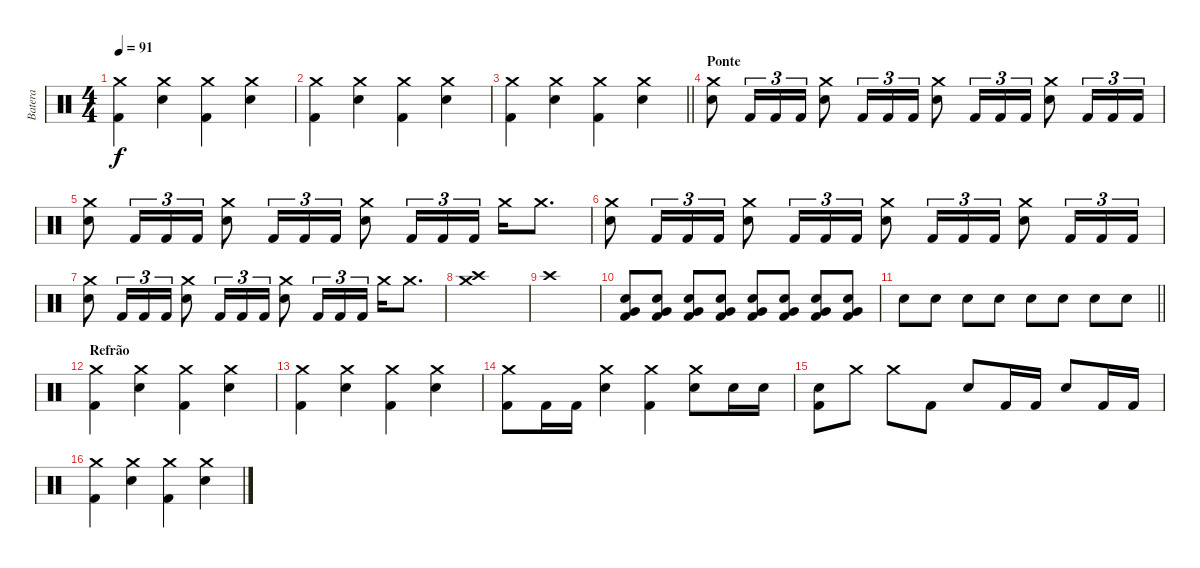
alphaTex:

\track ("Batera" "Batera") {instrument percussion}
\staff {score}
\articulation defaults
\ts (4 4)
\tempo 91
\clef neutral
\ks c
("Crash medium (hit)" "Kick (hit) 2").4{dy f} ("Crash medium (hit)" "Electric Snare (hit)").4 ("Crash medium (hit)" "Kick (hit) 2").4 ("Crash medium (hit)" "Electric Snare (hit)").4 |
("Crash medium (hit)" "Kick (hit) 2").4 ("Crash medium (hit)" "Electric Snare (hit)").4 ("Crash medium (hit)" "Kick (hit) 2").4 ("Crash medium (hit)" "Electric Snare (hit)").4 |
\barLineRight lightlight
("Crash medium (hit)" "Kick (hit) 2").4 ("Crash medium (hit)" "Electric Snare (hit)").4 ("Crash medium (hit)" "Kick (hit) 2").4 ("Crash medium (hit)" "Electric Snare (hit)").4 |
\section ("" "Ponte")
("Crash medium (hit)" "Electric Snare (hit)").8 "Kick (hit) 2".16{tu (3 2)} "Kick (hit) 2".16{tu (3 2)} "Kick (hit) 2".16{tu (3 2)} ("Crash medium (hit)" "Electric Snare (hit)").8 "Kick (hit) 2".16{tu (3 2)} "Kick (hit) 2".16{tu (3 2)} "Kick (hit) 2".16{tu (3 2)} ("Crash medium (hit)" "Electric Snare (hit)").8 "Kick (hit) 2".16{tu (3 2)} "Kick (hit) 2".16{tu (3 2)} "Kick (hit) 2".16{tu (3 2)} ("Crash medium (hit)" "Electric Snare (hit)").8 "Kick (hit) 2".16{tu (3 2)} "Kick (hit) 2".16{tu (3 2)} "Kick (hit) 2".16{tu (3 2)} |
("Crash medium (hit)" "Electric Snare (hit)").8 "Kick (hit) 2".16{tu (3 2)} "Kick (hit) 2".16{tu (3 2)} "Kick (hit) 2".16{tu (3 2)} ("Crash medium (hit)" "Electric Snare (hit)").8 "Kick (hit) 2".16{tu (3 2)} "Kick (hit) 2".16{tu (3 2)} "Kick (hit) 2".16{tu (3 2)} ("Crash medium (hit)" "Electric Snare (hit)").8 "Kick (hit) 2".16{tu (3 2)} "Kick (hit) 2".16{tu (3 2)} "Kick (hit) 2".16{tu (3 2)} "Crash medium (hit)".16 "Crash medium (hit)".8{d} |
("Crash medium (hit)" "Electric Snare (hit)").8 "Kick (hit) 2".16{tu (3 2)} "Kick (hit) 2".16{tu (3 2)} "Kick (hit) 2".16{tu (3 2)} ("Crash medium (hit)" "Electric Snare (hit)").8 "Kick (hit) 2".16{tu (3 2)} "Kick (hit) 2".16{tu (3 2)} "Kick (hit) 2".16{tu (3 2)} ("Crash medium (hit)" "Electric Snare (hit)").8 "Kick (hit) 2".16{tu (3 2)} "Kick (hit) 2".16{tu (3 2)} "Kick (hit) 2".16{tu (3 2)} ("Crash medium (hit)" "Electric Snare (hit)").8 "Kick (hit) 2".16{tu (3 2)} "Kick (hit) 2".16{tu (3 2)} "Kick (hit) 2".16{tu (3 2)} |
("Crash medium (hit)" "Electric Snare (hit)").8 "Kick (hit) 2".16{tu (3 2)} "Kick (hit) 2".16{tu (3 2)} "Kick (hit) 2".16{tu (3 2)} ("Crash medium (hit)" "Electric Snare (hit)").8 "Kick (hit) 2".16{tu (3 2)} "Kick (hit) 2".16{tu (3 2)} "Kick (hit) 2".16{tu (3 2)} ("Crash medium (hit)" "Electric Snare (hit)").8 "Kick (hit) 2".16{tu (3 2)} "Kick (hit) 2".16{tu (3 2)} "Kick (hit) 2".16{tu (3 2)} "Crash medium (hit)".16 "Crash medium (hit)".8{d} |
("Crash high (hit)" "Crash medium (hit)").1 |
"Crash high (hit)".1 |
("Electric Snare (hit)" "Very Low Tom (hit)" "Kick (hit) 2").8 ("Electric Snare (hit)" "Very Low Tom (hit)" "Kick (hit) 2").8 ("Electric Snare (hit)" "Very Low Tom (hit)" "Kick (hit) 2").8 ("Electric Snare (hit)" "Very Low Tom (hit)" "Kick (hit) 2").8 ("Electric Snare (hit)" "Very Low Tom (hit)" "Kick (hit) 2").8 ("Electric Snare (hit)" "Very Low Tom (hit)" "Kick (hit) 2").8 ("Electric Snare (hit)" "Very Low Tom (hit)" "Kick (hit) 2").8 ("Electric Snare (hit)" "Very Low Tom (hit)" "Kick (hit) 2").8 |
\barLineRight lightlight "Electric Snare (hit)".8 "Electric Snare (hit)".8 "Electric Snare (hit)".8 "Electric Snare (hit)".8 "Electric Snare (hit)".8 "Electric Snare (hit)".8 "Electric Snare (hit)".8 "Electric Snare (hit)".8
|
\section ("" "Refrão")
("Crash medium (hit)" "Kick (hit) 2").4 ("Crash medium (hit)" "Electric Snare (hit)").4 ("Crash medium (hit)" "Kick (hit) 2").4 ("Crash medium (hit)" "Electric Snare (hit)").4 |
("Crash medium (hit)" "Kick (hit) 2").4 ("Crash medium (hit)" "Electric Snare (hit)").4 ("Crash medium (hit)" "Kick (hit) 2").4 ("Crash medium (hit)" "Electric Snare (hit)").4 |
("Crash medium (hit)" "Kick (hit) 2").8 "Kick (hit) 2".16 "Kick (hit) 2".16 ("Crash medium (hit)" "Electric Snare (hit)").4 ("Crash medium (hit)" "Kick (hit) 2").4 ("Crash medium (hit)" "Electric Snare (hit)").8 "Electric Snare (hit)".16 "Electric Snare (hit)".16 |
("Electric Snare (hit)" "Kick (hit) 2").8 "Crash medium (hit)".8 "Crash medium (hit)".8 "Kick (hit) 2".8 "Electric Snare (hit)".8 "Kick (hit) 2".16 "Kick (hit) 2".16 "Electric Snare (hit)".8 "Kick (hit) 2".16 "Kick (hit) 2".16 |
("Crash medium (hit)" "Kick (hit) 2").4 ("Crash medium (hit)" "Electric Snare (hit)").4 ("Crash medium (hit)" "Kick (hit) 2").4 ("Crash medium (hit)" "Electric Snare (hit)").4
